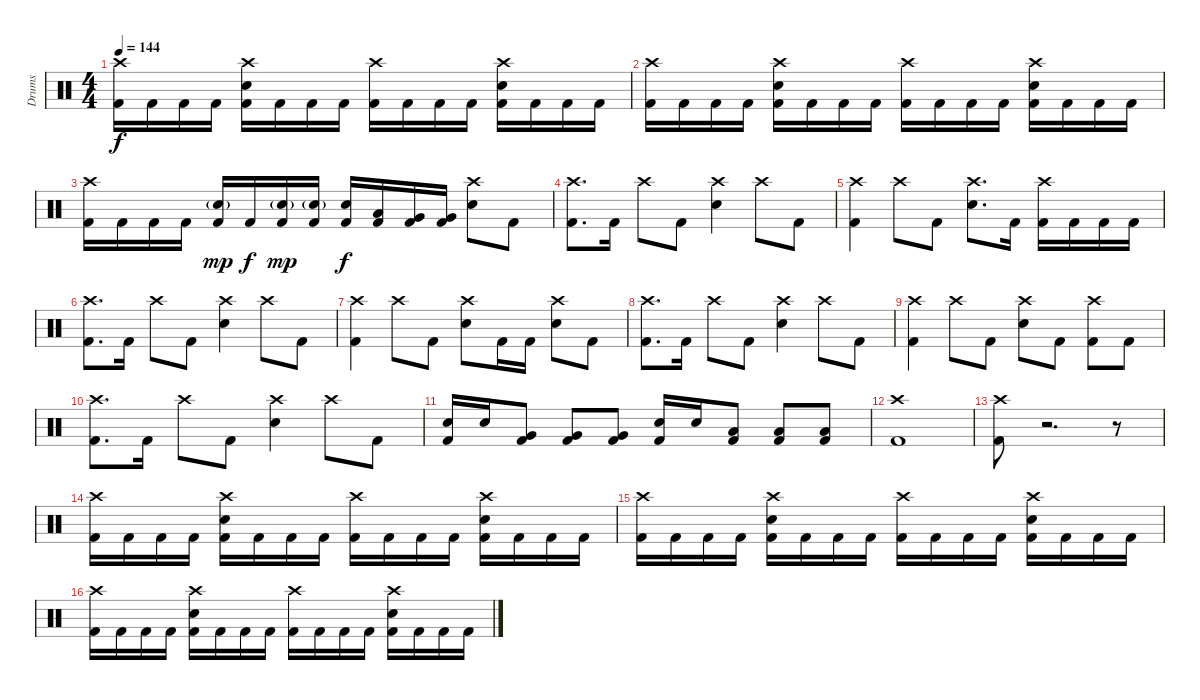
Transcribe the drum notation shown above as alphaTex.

\track ("Drums" "Drums") {instrument percussion}
\staff {score}
\articulation defaults
\ts (4 4)
\tempo 144
\clef neutral
\ks c
("Crash high (hit)" "Kick (hit) 2").16{dy f} "Kick (hit) 2".16 "Kick (hit) 2".16 "Kick (hit) 2".16 ("Crash high (hit)" "Snare (hit) 2" "Kick (hit) 2").16 "Kick (hit) 2".16 "Kick (hit) 2".16 "Kick (hit) 2".16 ("Crash high (hit)" "Kick (hit) 2").16 "Kick (hit) 2".16 "Kick (hit) 2".16 "Kick (hit) 2".16 ("Crash high (hit)" "Snare (hit) 2" "Kick (hit) 2").16 "Kick (hit) 2".16 "Kick (hit) 2".16 "Kick (hit) 2".16 |
("Crash high (hit)" "Kick (hit) 2").16 "Kick (hit) 2".16 "Kick (hit) 2".16 "Kick (hit) 2".16 ("Crash high (hit)" "Snare (hit) 2" "Kick (hit) 2").16 "Kick (hit) 2".16 "Kick (hit) 2".16 "Kick (hit) 2".16 ("Crash high (hit)" "Kick (hit) 2").16 "Kick (hit) 2".16 "Kick (hit) 2".16 "Kick (hit) 2".16 ("Crash high (hit)" "Snare (hit) 2" "Kick (hit) 2").16 "Kick (hit) 2".16 "Kick (hit) 2".16 "Kick (hit) 2".16 |
("Crash high (hit)" "Kick (hit) 2").16 "Kick (hit) 2".16 "Kick (hit) 2".16 "Kick (hit) 2".16 ("Snare (hit) 2"{g} "Kick (hit) 2").16{dy mp} "Kick (hit) 2".16{dy f} ("Snare (hit) 2"{g} "Kick (hit) 2").16{dy mp} ("Snare (hit) 2"{g} "Kick (hit) 2").16 ("Snare (hit) 2" "Kick (hit) 2").16{dy f} ("Low Tom (hit)" "Kick (hit) 2").16 ("Very Low Tom (hit)" "Kick (hit) 2").16 ("Very Low Tom (hit)" "Kick (hit) 2").16 ("Crash high (hit)" "Snare (hit) 2").8 "Kick (hit) 2".8 |
("Crash high (hit)" "Kick (hit) 2").8{d} "Kick (hit) 2".16 "Crash high (hit)".8 "Kick (hit) 2".8 ("Crash high (hit)" "Snare (hit) 2").4 "Crash high (hit)".8 "Kick (hit) 2".8 |
("Crash high (hit)" "Kick (hit) 2").4 "Crash high (hit)".8 "Kick (hit) 2".8 ("Crash high (hit)" "Snare (hit) 2").8{d} "Kick (hit) 2".16 ("Crash high (hit)" "Kick (hit) 2").16 "Kick (hit) 2".16 "Kick (hit) 2".16 "Kick (hit) 2".16 |
("Crash high (hit)" "Kick (hit) 2").8{d} "Kick (hit) 2".16 "Crash high (hit)".8 "Kick (hit) 2".8 ("Crash high (hit)" "Snare (hit) 2").4 "Crash high (hit)".8 "Kick (hit) 2".8 |
("Crash high (hit)" "Kick (hit) 2").4 "Crash high (hit)".8 "Kick (hit) 2".8 ("Crash high (hit)" "Snare (hit) 2").8 "Kick (hit) 2".16 "Kick (hit) 2".16 ("Crash high (hit)" "Snare (hit) 2").8 "Kick (hit) 2".8 |
("Crash high (hit)" "Kick (hit) 2").8{d} "Kick (hit) 2".16 "Crash high (hit)".8 "Kick (hit) 2".8 ("Crash high (hit)" "Snare (hit) 2").4 "Crash high (hit)".8 "Kick (hit) 2".8 |
("Crash high (hit)" "Kick (hit) 2").4 "Crash high (hit)".8 "Kick (hit) 2".8 ("Crash high (hit)" "Snare (hit) 2").8 "Kick (hit) 2".8 ("Crash high (hit)" "Kick (hit) 2").8 "Kick (hit) 2".8 |
("Crash high (hit)" "Kick (hit) 2").8{d} "Kick (hit) 2".16 "Crash high (hit)".8 "Kick (hit) 2".8 ("Crash high (hit)" "Snare (hit) 2").4 "Crash high (hit)".8 "Kick (hit) 2".8 |
("Kick (hit) 2" "Snare (hit) 2").16 "Snare (hit) 2".16 ("Kick (hit) 2" "Very Low Tom (hit)").8 ("Kick (hit) 2" "Very Low Tom (hit)").8 ("Kick (hit) 2" "Very Low Tom (hit)").8 ("Kick (hit) 2" "Snare (hit) 2").16 "Snare (hit) 2".16 ("Kick (hit) 2" "Low Floor Tom (hit)").8 ("Kick (hit) 2" "Low Floor Tom (hit)").8 ("Kick (hit) 2" "Low Floor Tom (hit)").8 |
("Crash high (hit)" "Kick (hit) 2").1 |
("Crash high (hit)" "Kick (hit) 2").8 r.2{d volume 0} r.8 |
("Crash high (hit)" "Kick (hit) 2").16{volume 16} "Kick (hit) 2".16 "Kick (hit) 2".16 "Kick (hit) 2".16 ("Crash high (hit)" "Snare (hit) 2" "Kick (hit) 2").16 "Kick (hit) 2".16 "Kick (hit) 2".16 "Kick (hit) 2".16 ("Crash high (hit)" "Kick (hit) 2").16 "Kick (hit) 2".16 "Kick (hit) 2".16 "Kick (hit) 2".16 ("Crash high (hit)" "Snare (hit) 2" "Kick (hit) 2").16 "Kick (hit) 2".16 "Kick (hit) 2".16 "Kick (hit) 2".16 |
("Crash high (hit)" "Kick (hit) 2").16 "Kick (hit) 2".16 "Kick (hit) 2".16 "Kick (hit) 2".16 ("Crash high (hit)" "Snare (hit) 2" "Kick (hit) 2").16 "Kick (hit) 2".16 "Kick (hit) 2".16 "Kick (hit) 2".16 ("Crash high (hit)" "Kick (hit) 2").16 "Kick (hit) 2".16 "Kick (hit) 2".16 "Kick (hit) 2".16 ("Crash high (hit)" "Snare (hit) 2" "Kick (hit) 2").16 "Kick (hit) 2".16 "Kick (hit) 2".16 "Kick (hit) 2".16 |
("Crash high (hit)" "Kick (hit) 2").16 "Kick (hit) 2".16 "Kick (hit) 2".16 "Kick (hit) 2".16 ("Crash high (hit)" "Snare (hit) 2" "Kick (hit) 2").16 "Kick (hit) 2".16 "Kick (hit) 2".16 "Kick (hit) 2".16 ("Crash high (hit)" "Kick (hit) 2").16 "Kick (hit) 2".16 "Kick (hit) 2".16 "Kick (hit) 2".16 ("Crash high (hit)" "Snare (hit) 2" "Kick (hit) 2").16 "Kick (hit) 2".16 "Kick (hit) 2".16 "Kick (hit) 2".16
